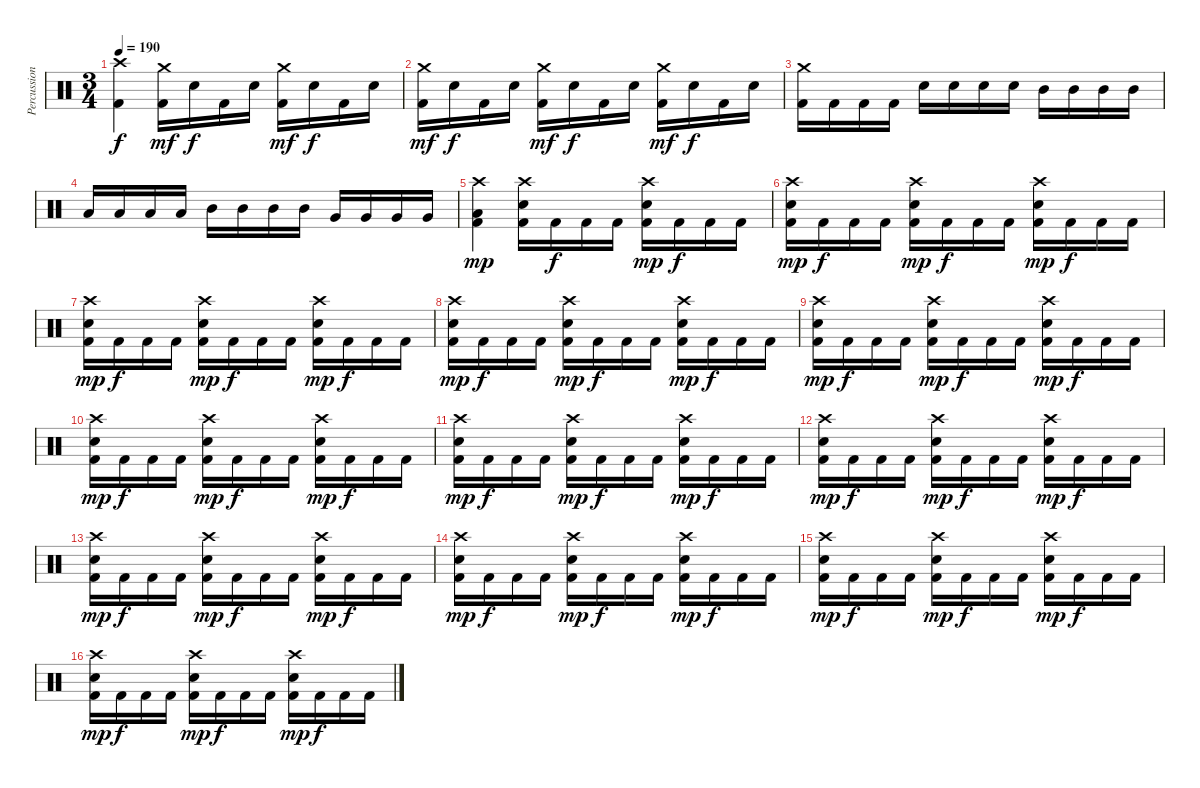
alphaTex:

\track ("Percussion" "Percussion") {instrument percussion}
\staff {score}
\articulation defaults
\ts (3 4)
\tempo 190
\clef neutral
\ks c
("Crash high (hit)" "Kick (hit) 2").4{dy f} ("Crash medium (hit)" "Kick (hit) 2").16{dy mf} "Electric Snare (hit)".16{dy f} "Kick (hit) 2".16 "Electric Snare (hit)".16 ("Crash medium (hit)" "Kick (hit) 2").16{dy mf} "Electric Snare (hit)".16{dy f} "Kick (hit) 2".16 "Electric Snare (hit)".16 |
("Crash medium (hit)" "Kick (hit) 2").16{dy mf} "Electric Snare (hit)".16{dy f} "Kick (hit) 2".16 "Electric Snare (hit)".16 ("Crash medium (hit)" "Kick (hit) 2").16{dy mf} "Electric Snare (hit)".16{dy f} "Kick (hit) 2".16 "Electric Snare (hit)".16 ("Crash medium (hit)" "Kick (hit) 2").16{dy mf} "Electric Snare (hit)".16{dy f} "Kick (hit) 2".16 "Electric Snare (hit)".16 |
("Crash medium (hit)" "Kick (hit) 2").16 "Kick (hit) 2".16 "Kick (hit) 2".16 "Kick (hit) 2".16 "Electric Snare (hit)".16 "Electric Snare (hit)".16 "Electric Snare (hit)".16 "Electric Snare (hit)".16 "Mid Tom (hit)".16 "Mid Tom (hit)".16 "Mid Tom (hit)".16 "Mid Tom (hit)".16 |
"Low Tom (hit)".16 "Low Tom (hit)".16 "Low Tom (hit)".16 "Low Tom (hit)".16 "Mid Tom (hit)".16 "Mid Tom (hit)".16 "Mid Tom (hit)".16 "Mid Tom (hit)".16 "Very Low Tom (hit)".16 "Very Low Tom (hit)".16 "Very Low Tom (hit)".16 "Very Low Tom (hit)".16 |
("Crash high (hit)" "Low Floor Tom (hit)" "Kick (hit) 2").4{dy mp} ("Crash high (hit)" "Electric Snare (hit)" "Kick (hit) 2").16 "Kick (hit) 2".16{dy f} "Kick (hit) 2".16 "Kick (hit) 2".16 ("Crash high (hit)" "Electric Snare (hit)" "Kick (hit) 2").16{dy mp} "Kick (hit) 2".16{dy f} "Kick (hit) 2".16 "Kick (hit) 2".16 |
("Crash high (hit)" "Electric Snare (hit)" "Kick (hit) 2").16{dy mp} "Kick (hit) 2".16{dy f} "Kick (hit) 2".16 "Kick (hit) 2".16 ("Crash high (hit)" "Electric Snare (hit)" "Kick (hit) 2").16{dy mp} "Kick (hit) 2".16{dy f} "Kick (hit) 2".16 "Kick (hit) 2".16 ("Crash high (hit)" "Electric Snare (hit)" "Kick (hit) 2").16{dy mp} "Kick (hit) 2".16{dy f} "Kick (hit) 2".16 "Kick (hit) 2".16 |
("Crash high (hit)" "Electric Snare (hit)" "Kick (hit) 2").16{dy mp} "Kick (hit) 2".16{dy f} "Kick (hit) 2".16 "Kick (hit) 2".16 ("Crash high (hit)" "Electric Snare (hit)" "Kick (hit) 2").16{dy mp} "Kick (hit) 2".16{dy f} "Kick (hit) 2".16 "Kick (hit) 2".16 ("Crash high (hit)" "Electric Snare (hit)" "Kick (hit) 2").16{dy mp} "Kick (hit) 2".16{dy f} "Kick (hit) 2".16 "Kick (hit) 2".16 |
("Crash high (hit)" "Electric Snare (hit)" "Kick (hit) 2").16{dy mp} "Kick (hit) 2".16{dy f} "Kick (hit) 2".16 "Kick (hit) 2".16 ("Crash high (hit)" "Electric Snare (hit)" "Kick (hit) 2").16{dy mp} "Kick (hit) 2".16{dy f} "Kick (hit) 2".16 "Kick (hit) 2".16 ("Crash high (hit)" "Electric Snare (hit)" "Kick (hit) 2").16{dy mp} "Kick (hit) 2".16{dy f} "Kick (hit) 2".16 "Kick (hit) 2".16 |
("Crash high (hit)" "Electric Snare (hit)" "Kick (hit) 2").16{dy mp} "Kick (hit) 2".16{dy f} "Kick (hit) 2".16 "Kick (hit) 2".16 ("Crash high (hit)" "Electric Snare (hit)" "Kick (hit) 2").16{dy mp} "Kick (hit) 2".16{dy f} "Kick (hit) 2".16 "Kick (hit) 2".16 ("Crash high (hit)" "Electric Snare (hit)" "Kick (hit) 2").16{dy mp} "Kick (hit) 2".16{dy f} "Kick (hit) 2".16 "Kick (hit) 2".16 |
("Crash high (hit)" "Electric Snare (hit)" "Kick (hit) 2").16{dy mp} "Kick (hit) 2".16{dy f} "Kick (hit) 2".16 "Kick (hit) 2".16 ("Crash high (hit)" "Electric Snare (hit)" "Kick (hit) 2").16{dy mp} "Kick (hit) 2".16{dy f} "Kick (hit) 2".16 "Kick (hit) 2".16 ("Crash high (hit)" "Electric Snare (hit)" "Kick (hit) 2").16{dy mp} "Kick (hit) 2".16{dy f} "Kick (hit) 2".16 "Kick (hit) 2".16 |
("Crash high (hit)" "Electric Snare (hit)" "Kick (hit) 2").16{dy mp} "Kick (hit) 2".16{dy f} "Kick (hit) 2".16 "Kick (hit) 2".16 ("Crash high (hit)" "Electric Snare (hit)" "Kick (hit) 2").16{dy mp} "Kick (hit) 2".16{dy f} "Kick (hit) 2".16 "Kick (hit) 2".16 ("Crash high (hit)" "Electric Snare (hit)" "Kick (hit) 2").16{dy mp} "Kick (hit) 2".16{dy f} "Kick (hit) 2".16 "Kick (hit) 2".16 |
("Crash high (hit)" "Electric Snare (hit)" "Kick (hit) 2").16{dy mp} "Kick (hit) 2".16{dy f} "Kick (hit) 2".16 "Kick (hit) 2".16 ("Crash high (hit)" "Electric Snare (hit)" "Kick (hit) 2").16{dy mp} "Kick (hit) 2".16{dy f} "Kick (hit) 2".16 "Kick (hit) 2".16 ("Crash high (hit)" "Electric Snare (hit)" "Kick (hit) 2").16{dy mp} "Kick (hit) 2".16{dy f} "Kick (hit) 2".16 "Kick (hit) 2".16 |
("Crash high (hit)" "Electric Snare (hit)" "Kick (hit) 2").16{dy mp} "Kick (hit) 2".16{dy f} "Kick (hit) 2".16 "Kick (hit) 2".16 ("Crash high (hit)" "Electric Snare (hit)" "Kick (hit) 2").16{dy mp} "Kick (hit) 2".16{dy f} "Kick (hit) 2".16 "Kick (hit) 2".16 ("Crash high (hit)" "Electric Snare (hit)" "Kick (hit) 2").16{dy mp} "Kick (hit) 2".16{dy f} "Kick (hit) 2".16 "Kick (hit) 2".16 |
("Crash high (hit)" "Electric Snare (hit)" "Kick (hit) 2").16{dy mp} "Kick (hit) 2".16{dy f} "Kick (hit) 2".16 "Kick (hit) 2".16 ("Crash high (hit)" "Electric Snare (hit)" "Kick (hit) 2").16{dy mp} "Kick (hit) 2".16{dy f} "Kick (hit) 2".16 "Kick (hit) 2".16 ("Crash high (hit)" "Electric Snare (hit)" "Kick (hit) 2").16{dy mp} "Kick (hit) 2".16{dy f} "Kick (hit) 2".16 "Kick (hit) 2".16 |
("Crash high (hit)" "Electric Snare (hit)" "Kick (hit) 2").16{dy mp} "Kick (hit) 2".16{dy f} "Kick (hit) 2".16 "Kick (hit) 2".16 ("Crash high (hit)" "Electric Snare (hit)" "Kick (hit) 2").16{dy mp} "Kick (hit) 2".16{dy f} "Kick (hit) 2".16 "Kick (hit) 2".16 ("Crash high (hit)" "Electric Snare (hit)" "Kick (hit) 2").16{dy mp} "Kick (hit) 2".16{dy f} "Kick (hit) 2".16 "Kick (hit) 2".16 |
("Crash high (hit)" "Electric Snare (hit)" "Kick (hit) 2").16{dy mp} "Kick (hit) 2".16{dy f} "Kick (hit) 2".16 "Kick (hit) 2".16 ("Crash high (hit)" "Electric Snare (hit)" "Kick (hit) 2").16{dy mp} "Kick (hit) 2".16{dy f} "Kick (hit) 2".16 "Kick (hit) 2".16 ("Crash high (hit)" "Electric Snare (hit)" "Kick (hit) 2").16{dy mp} "Kick (hit) 2".16{dy f} "Kick (hit) 2".16 "Kick (hit) 2".16
